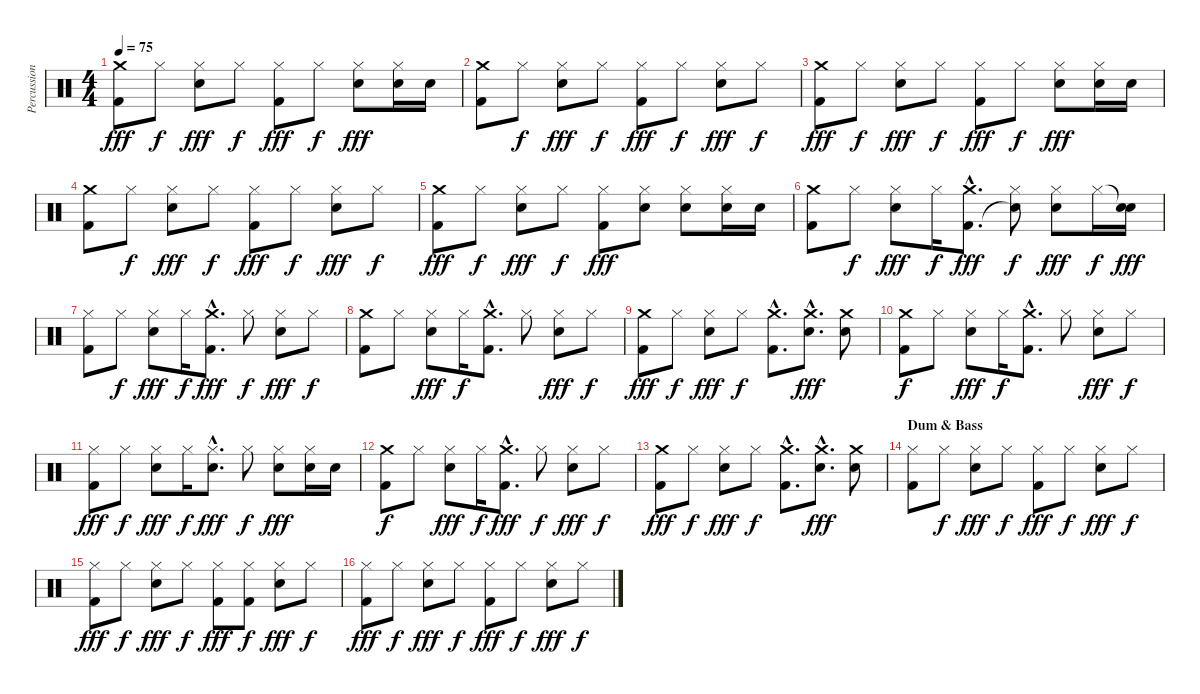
\track ("Percussion" "Percussion") {instrument percussion}
\staff {score}
\articulation defaults
\ts (4 4)
\tempo 75
\clef neutral
\ks c
("Crash medium (hit)" "Kick (hit) 2").8{dy fff} "Hi-Hat (closed)".8{dy f} ("Hi-Hat (closed)" "Electric Snare (hit)").8{dy fff} "Hi-Hat (closed)".8{dy f} ("Hi-Hat (closed)" "Kick (hit) 2").8{dy fff} "Hi-Hat (closed)".8{dy f} ("Hi-Hat (closed)" "Electric Snare (hit)").8{dy fff} ("Hi-Hat (closed)" "Electric Snare (hit)").16 "Electric Snare (hit)".16 |
("Crash medium (hit)" "Kick (hit) 2").8 "Hi-Hat (closed)".8{dy f} ("Hi-Hat (closed)" "Electric Snare (hit)").8{dy fff} "Hi-Hat (closed)".8{dy f} ("Hi-Hat (closed)" "Kick (hit) 2").8{dy fff} "Hi-Hat (closed)".8{dy f} ("Hi-Hat (closed)" "Electric Snare (hit)").8{dy fff} "Hi-Hat (closed)".8{dy f} |
("Crash medium (hit)" "Kick (hit) 2").8{dy fff} "Hi-Hat (closed)".8{dy f} ("Hi-Hat (closed)" "Electric Snare (hit)").8{dy fff} "Hi-Hat (closed)".8{dy f} ("Hi-Hat (closed)" "Kick (hit) 2").8{dy fff} "Hi-Hat (closed)".8{dy f} ("Hi-Hat (closed)" "Electric Snare (hit)").8{dy fff} ("Hi-Hat (closed)" "Electric Snare (hit)").16 "Electric Snare (hit)".16 |
("Crash medium (hit)" "Kick (hit) 2").8 "Hi-Hat (closed)".8{dy f} ("Hi-Hat (closed)" "Electric Snare (hit)").8{dy fff} "Hi-Hat (closed)".8{dy f} ("Hi-Hat (closed)" "Kick (hit) 2").8{dy fff} "Hi-Hat (closed)".8{dy f} ("Hi-Hat (closed)" "Electric Snare (hit)").8{dy fff} "Hi-Hat (closed)".8{dy f} |
("Crash medium (hit)" "Kick (hit) 2").8{dy fff} "Hi-Hat (closed)".8{dy f} ("Hi-Hat (closed)" "Electric Snare (hit)").8{dy fff} "Hi-Hat (closed)".8{dy f} ("Hi-Hat (closed)" "Kick (hit) 2").8{dy fff} ("Hi-Hat (closed)" "Electric Snare (hit)").8 ("Hi-Hat (closed)" "Electric Snare (hit)").8 ("Hi-Hat (closed)" "Electric Snare (hit)").16 "Electric Snare (hit)".16 |
("Crash medium (hit)" "Kick (hit) 2").8 "Hi-Hat (closed)".8{dy f} ("Hi-Hat (closed)" "Electric Snare (hit)").8{dy fff} "Hi-Hat (closed)".16{dy f} ("Crash medium (hit)" "Kick (hit) 2"{hac}).8{d dy fff} ("Hi-Hat (closed)" "Snare (hit)"{t}).8{dy f} ("Hi-Hat (closed)" "Electric Snare (hit)").8{dy fff} "Hi-Hat (closed)".16{dy f} ("Snare (hit)"{t} "Electric Snare (hit)").16{dy fff} |
("Hi-Hat (closed)" "Kick (hit) 2").8 "Hi-Hat (closed)".8{dy f} ("Hi-Hat (closed)" "Electric Snare (hit)").8{dy fff} "Hi-Hat (closed)".16{dy f} ("Crash medium (hit)"{hac} "Kick (hit) 2"{hac}).8{d dy fff} "Hi-Hat (closed)".8{dy f} ("Hi-Hat (closed)" "Electric Snare (hit)").8{dy fff} "Hi-Hat (closed)".8{dy f} |
("Crash medium (hit)" "Kick (hit) 2").8 "Hi-Hat (closed)".8 ("Hi-Hat (closed)" "Electric Snare (hit)").8{dy fff} "Hi-Hat (closed)".16{dy f} ("Crash medium (hit)"{hac} "Kick (hit) 2"{hac}).8{d} "Hi-Hat (closed)".8 ("Hi-Hat (closed)" "Electric Snare (hit)").8{dy fff} "Hi-Hat (closed)".8{dy f} |
("Crash medium (hit)" "Kick (hit) 2").8{dy fff} "Hi-Hat (closed)".8{dy f} ("Hi-Hat (closed)" "Electric Snare (hit)").8{dy fff} "Hi-Hat (closed)".8{dy f} ("Crash medium (hit)"{hac} "Kick (hit) 2"{hac}).8{d} ("Crash medium (hit)"{hac} "Electric Snare (hit)"{hac}).8{d dy fff} ("Crash medium (hit)" "Electric Snare (hit)").8 |
("Crash medium (hit)" "Kick (hit) 2").8{dy f} "Hi-Hat (closed)".8 ("Hi-Hat (closed)" "Electric Snare (hit)").8{dy fff} "Hi-Hat (closed)".16{dy f} ("Crash medium (hit)"{hac} "Kick (hit) 2"{hac}).8{d} "Hi-Hat (closed)".8 ("Hi-Hat (closed)" "Electric Snare (hit)").8{dy fff} "Hi-Hat (closed)".8{dy f} |
("Hi-Hat (closed)" "Kick (hit) 2").8{dy fff} "Hi-Hat (closed)".8{dy f} ("Hi-Hat (closed)" "Electric Snare (hit)").8{dy fff} "Hi-Hat (closed)".16{dy f} ("Hi-Hat (closed)"{hac} "Electric Snare (hit)"{hac}).8{d dy fff} "Hi-Hat (closed)".8{dy f} ("Hi-Hat (closed)" "Electric Snare (hit)").8{dy fff} ("Hi-Hat (closed)" "Electric Snare (hit)").16 "Electric Snare (hit)".16 |
("Crash medium (hit)" "Kick (hit) 2").8{dy f} "Hi-Hat (closed)".8 ("Hi-Hat (closed)" "Electric Snare (hit)").8{dy fff} "Hi-Hat (closed)".16{dy f} ("Crash medium (hit)"{hac} "Kick (hit) 2"{hac}).8{d dy fff} "Hi-Hat (closed)".8{dy f} ("Hi-Hat (closed)" "Electric Snare (hit)").8{dy fff} "Hi-Hat (closed)".8{dy f} |
("Crash medium (hit)" "Kick (hit) 2").8{dy fff} "Hi-Hat (closed)".8{dy f} ("Hi-Hat (closed)" "Electric Snare (hit)").8{dy fff} "Hi-Hat (closed)".8{dy f} ("Crash medium (hit)"{hac} "Kick (hit) 2"{hac}).8{d} ("Crash medium (hit)"{hac} "Electric Snare (hit)"{hac}).8{d dy fff} ("Crash medium (hit)" "Electric Snare (hit)").8 |
\section ("" "Dum & Bass")
("Hi-Hat (closed)" "Kick (hit) 2").8 "Hi-Hat (closed)".8{dy f} ("Hi-Hat (closed)" "Electric Snare (hit)").8{dy fff} "Hi-Hat (closed)".8{dy f} ("Hi-Hat (closed)" "Kick (hit) 2").8{dy fff} "Hi-Hat (closed)".8{dy f} ("Hi-Hat (closed)" "Electric Snare (hit)").8{dy fff} "Hi-Hat (closed)".8{dy f} |
("Hi-Hat (closed)" "Kick (hit) 2").8{dy fff} "Hi-Hat (closed)".8{dy f} ("Hi-Hat (closed)" "Electric Snare (hit)").8{dy fff} "Hi-Hat (closed)".8{dy f} ("Hi-Hat (closed)" "Kick (hit) 2").8{dy fff} ("Hi-Hat (closed)" "Kick (hit) 2").8{dy f} ("Hi-Hat (closed)" "Electric Snare (hit)").8{dy fff} "Hi-Hat (closed)".8{dy f} |
("Hi-Hat (closed)" "Kick (hit) 2").8{dy fff} "Hi-Hat (closed)".8{dy f} ("Hi-Hat (closed)" "Electric Snare (hit)").8{dy fff} "Hi-Hat (closed)".8{dy f} ("Hi-Hat (closed)" "Kick (hit) 2").8{dy fff} "Hi-Hat (closed)".8{dy f} ("Hi-Hat (closed)" "Electric Snare (hit)").8{dy fff} "Hi-Hat (closed)".8{dy f}
